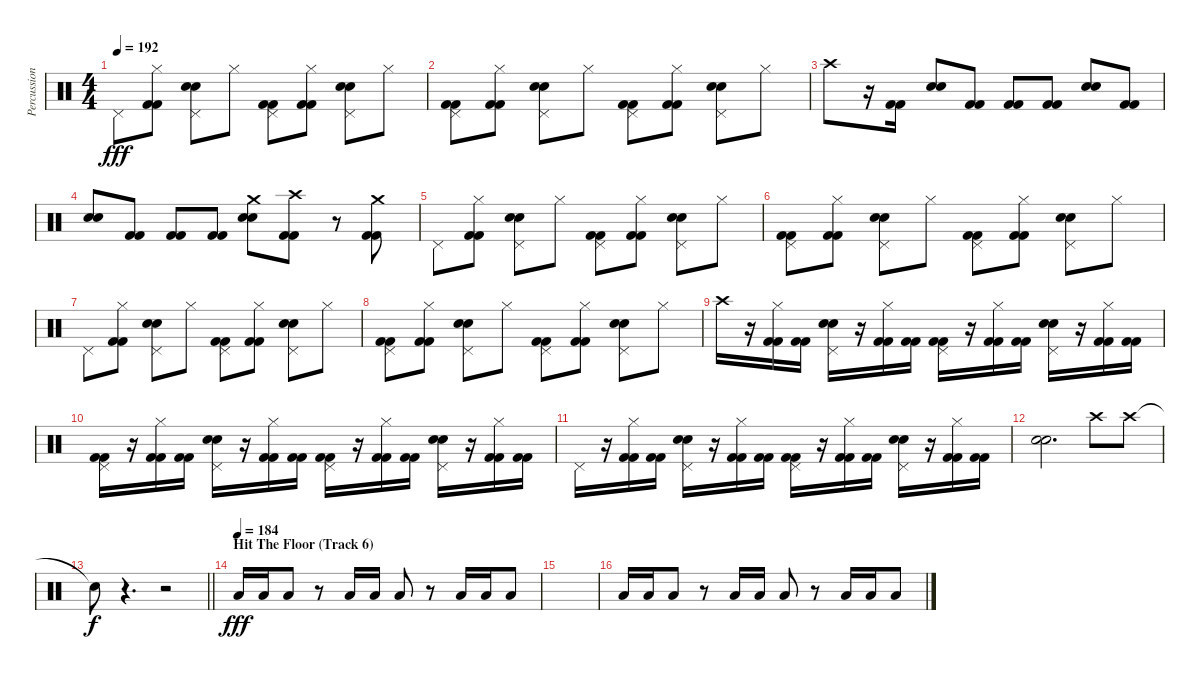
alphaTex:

\track ("Percussion" "Percussion") {instrument percussion}
\staff {score}
\articulation defaults
\ts (4 4)
\tempo 192
\clef neutral
\ks c "Pedal Hi-Hat (hit)".8{dy fff}
("Hi-Hat (closed)" "Kick (hit) 2" "Kick (hit) 2").8 ("Pedal Hi-Hat (hit)" "Snare (hit) 2" "Electric Snare (hit)").8 "Hi-Hat (closed)".8 ("Pedal Hi-Hat (hit)" "Kick (hit) 2" "Kick (hit) 2").8 ("Hi-Hat (closed)" "Kick (hit) 2" "Kick (hit) 2").8 ("Pedal Hi-Hat (hit)" "Snare (hit) 2" "Electric Snare (hit)").8 "Hi-Hat (closed)".8 |
("Pedal Hi-Hat (hit)" "Kick (hit) 2" "Kick (hit) 2").8 ("Hi-Hat (closed)" "Kick (hit) 2" "Kick (hit) 2").8 ("Pedal Hi-Hat (hit)" "Snare (hit) 2" "Electric Snare (hit)").8 "Hi-Hat (closed)".8 ("Pedal Hi-Hat (hit)" "Kick (hit) 2" "Kick (hit) 2").8 ("Hi-Hat (closed)" "Kick (hit) 2" "Kick (hit) 2").8 ("Pedal Hi-Hat (hit)" "Snare (hit) 2" "Electric Snare (hit)").8 "Hi-Hat (closed)".8 |
"Crash high (hit)".8 r.16 ("Kick (hit) 2" "Kick (hit) 2").16 ("Snare (hit) 2" "Electric Snare (hit)").8 ("Kick (hit) 2" "Kick (hit) 2").8 ("Kick (hit) 2" "Kick (hit) 2").8 ("Kick (hit) 2" "Kick (hit) 2").8 ("Snare (hit) 2" "Electric Snare (hit)").8 ("Kick (hit) 2" "Kick (hit) 2").8 |
("Snare (hit) 2" "Electric Snare (hit)").8 ("Kick (hit) 2" "Kick (hit) 2").8 ("Kick (hit) 2" "Kick (hit) 2").8 ("Kick (hit) 2" "Kick (hit) 2").8 ("Crash medium (hit)" "Snare (hit) 2" "Electric Snare (hit)").8 ("Crash high (hit)" "Kick (hit) 2" "Kick (hit) 2").8 r.8 ("Crash medium (hit)" "Kick (hit) 2" "Kick (hit) 2").8 |
"Pedal Hi-Hat (hit)".8 ("Hi-Hat (closed)" "Kick (hit) 2" "Kick (hit) 2").8 ("Pedal Hi-Hat (hit)" "Snare (hit) 2" "Electric Snare (hit)").8 "Hi-Hat (closed)".8 ("Pedal Hi-Hat (hit)" "Kick (hit) 2" "Kick (hit) 2").8 ("Hi-Hat (closed)" "Kick (hit) 2" "Kick (hit) 2").8 ("Pedal Hi-Hat (hit)" "Snare (hit) 2" "Electric Snare (hit)").8 "Hi-Hat (closed)".8 |
("Pedal Hi-Hat (hit)" "Kick (hit) 2" "Kick (hit) 2").8 ("Hi-Hat (closed)" "Kick (hit) 2" "Kick (hit) 2").8 ("Pedal Hi-Hat (hit)" "Snare (hit) 2" "Electric Snare (hit)").8 "Hi-Hat (closed)".8 ("Pedal Hi-Hat (hit)" "Kick (hit) 2" "Kick (hit) 2").8 ("Hi-Hat (closed)" "Kick (hit) 2" "Kick (hit) 2").8 ("Pedal Hi-Hat (hit)" "Snare (hit) 2" "Electric Snare (hit)").8 "Hi-Hat (closed)".8 |
"Pedal Hi-Hat (hit)".8 ("Hi-Hat (closed)" "Kick (hit) 2" "Kick (hit) 2").8 ("Pedal Hi-Hat (hit)" "Snare (hit) 2" "Electric Snare (hit)").8 "Hi-Hat (closed)".8 ("Pedal Hi-Hat (hit)" "Kick (hit) 2" "Kick (hit) 2").8 ("Hi-Hat (closed)" "Kick (hit) 2" "Kick (hit) 2").8 ("Pedal Hi-Hat (hit)" "Snare (hit) 2" "Electric Snare (hit)").8 "Hi-Hat (closed)".8 |
("Pedal Hi-Hat (hit)" "Kick (hit) 2" "Kick (hit) 2").8 ("Hi-Hat (closed)" "Kick (hit) 2" "Kick (hit) 2").8 ("Pedal Hi-Hat (hit)" "Snare (hit) 2" "Electric Snare (hit)").8 "Hi-Hat (closed)".8 ("Pedal Hi-Hat (hit)" "Kick (hit) 2" "Kick (hit) 2").8 ("Hi-Hat (closed)" "Kick (hit) 2" "Kick (hit) 2").8 ("Pedal Hi-Hat (hit)" "Snare (hit) 2" "Electric Snare (hit)").8 "Hi-Hat (closed)".8 |
"Crash high (hit)".16 r.16 ("Hi-Hat (closed)" "Kick (hit) 2" "Kick (hit) 2").16 ("Kick (hit) 2" "Kick (hit) 2").16 ("Pedal Hi-Hat (hit)" "Snare (hit) 2" "Electric Snare (hit)").16 r.16 ("Hi-Hat (closed)" "Kick (hit) 2" "Kick (hit) 2").16 ("Kick (hit) 2" "Kick (hit) 2").16 ("Pedal Hi-Hat (hit)" "Kick (hit) 2" "Kick (hit) 2").16 r.16 ("Hi-Hat (closed)" "Kick (hit) 2" "Kick (hit) 2").16 ("Kick (hit) 2" "Kick (hit) 2").16 ("Pedal Hi-Hat (hit)" "Snare (hit) 2" "Electric Snare (hit)").16 r.16 ("Hi-Hat (closed)" "Kick (hit) 2" "Kick (hit) 2").16 ("Kick (hit) 2" "Kick (hit) 2").16 |
("Pedal Hi-Hat (hit)" "Kick (hit) 2" "Kick (hit) 2").16 r.16 ("Hi-Hat (closed)" "Kick (hit) 2" "Kick (hit) 2").16 ("Kick (hit) 2" "Kick (hit) 2").16 ("Pedal Hi-Hat (hit)" "Snare (hit) 2" "Electric Snare (hit)").16 r.16 ("Hi-Hat (closed)" "Kick (hit) 2" "Kick (hit) 2").16 ("Kick (hit) 2" "Kick (hit) 2").16 ("Pedal Hi-Hat (hit)" "Kick (hit) 2" "Kick (hit) 2").16 r.16 ("Hi-Hat (closed)" "Kick (hit) 2" "Kick (hit) 2").16 ("Kick (hit) 2" "Kick (hit) 2").16 ("Pedal Hi-Hat (hit)" "Snare (hit) 2" "Electric Snare (hit)").16 r.16 ("Hi-Hat (closed)" "Kick (hit) 2" "Kick (hit) 2").16 ("Kick (hit) 2" "Kick (hit) 2").16 |
"Pedal Hi-Hat (hit)".16 r.16 ("Hi-Hat (closed)" "Kick (hit) 2" "Kick (hit) 2").16 ("Kick (hit) 2" "Kick (hit) 2").16 ("Pedal Hi-Hat (hit)" "Snare (hit) 2" "Electric Snare (hit)").16 r.16 ("Hi-Hat (closed)" "Kick (hit) 2" "Kick (hit) 2").16 ("Kick (hit) 2" "Kick (hit) 2").16 ("Pedal Hi-Hat (hit)" "Kick (hit) 2" "Kick (hit) 2").16 r.16 ("Hi-Hat (closed)" "Kick (hit) 2" "Kick (hit) 2").16 ("Kick (hit) 2" "Kick (hit) 2").16 ("Pedal Hi-Hat (hit)" "Snare (hit) 2" "Electric Snare (hit)").16 r.16 ("Hi-Hat (closed)" "Kick (hit) 2" "Kick (hit) 2").16 ("Kick (hit) 2" "Kick (hit) 2").16 |
("Snare (hit) 2" "Electric Snare (hit)").2{d} "Crash high (hit)".8 "Crash high (hit)".8 |
\barLineRight lightlight "Snare (hit)"{t}.8{dy f}
r.4{d} r.2 |
\section ("" "Hit The Floor (Track 6)")
\tempo (184)
"Low Floor Tom (hit)".16{dy fff} "Low Floor Tom (hit)".16 "Low Floor Tom (hit)".8 r.8 "Low Floor Tom (hit)".16 "Low Floor Tom (hit)".16 "Low Floor Tom (hit)".8 r.8 "Low Floor Tom (hit)".16 "Low Floor Tom (hit)".16 "Low Floor Tom (hit)".8 |
|
"Low Floor Tom (hit)".16 "Low Floor Tom (hit)".16 "Low Floor Tom (hit)".8 r.8 "Low Floor Tom (hit)".16 "Low Floor Tom (hit)".16 "Low Floor Tom (hit)".8 r.8 "Low Floor Tom (hit)".16 "Low Floor Tom (hit)".16 "Low Floor Tom (hit)".8
